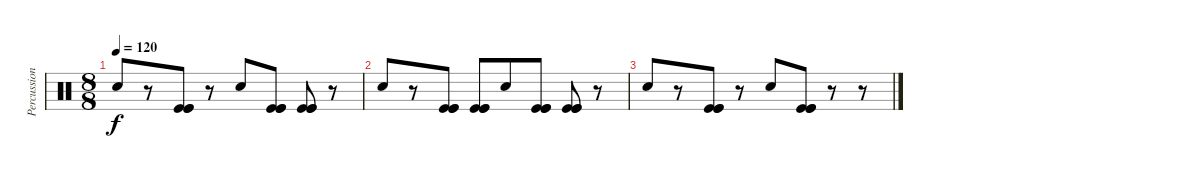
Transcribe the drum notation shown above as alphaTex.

\track ("Percussion" "Percussion") {instrument percussion}
\staff {score}
\articulation defaults
\ts (8 8)
\tempo 120
\clef neutral
\ks c "Electric Snare (hit)".8{dy f}
r.8 ("Kick (hit)" "Kick (hit)" "Kick (hit)").8 r.8 "Electric Snare (hit)".8 ("Kick (hit)" "Kick (hit)" "Kick (hit)").8 ("Kick (hit)" "Kick (hit)" "Kick (hit)").8 r.8 |
"Electric Snare (hit)".8 r.8 ("Kick (hit)" "Kick (hit)" "Kick (hit)").8 ("Kick (hit)" "Kick (hit)" "Kick (hit)").8 "Electric Snare (hit)".8 ("Kick (hit)" "Kick (hit)" "Kick (hit)").8 ("Kick (hit)" "Kick (hit)" "Kick (hit)").8 r.8 |
"Electric Snare (hit)".8 r.8 ("Kick (hit)" "Kick (hit)" "Kick (hit)").8 r.8 "Electric Snare (hit)".8 ("Kick (hit)" "Kick (hit)" "Kick (hit)").8 r.8 r.8
